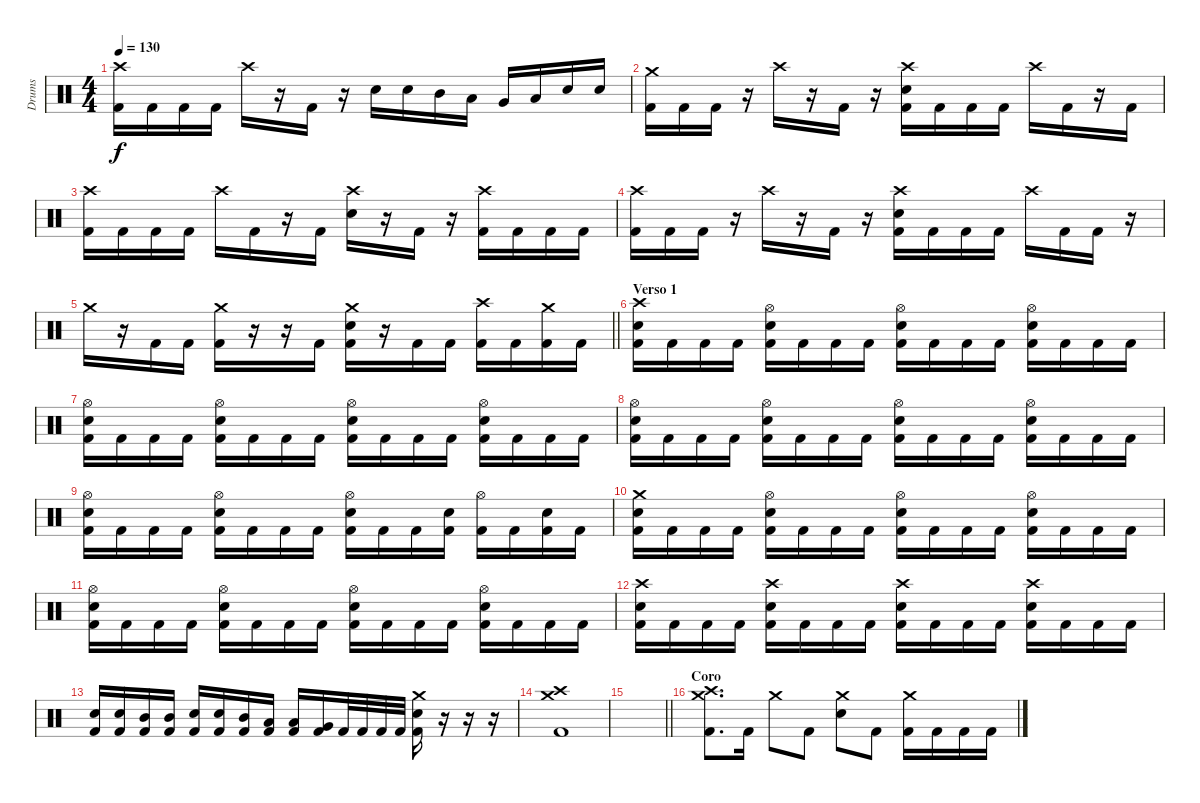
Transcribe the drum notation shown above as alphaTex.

\track ("Drums" "Drums") {instrument percussion}
\staff {score}
\articulation defaults
\ts (4 4)
\tempo 130
\clef neutral
\ks c
("Crash high (hit)" "Kick (hit) 2").16{dy f} "Kick (hit) 2".16 "Kick (hit) 2".16 "Kick (hit) 2".16 "Crash high (hit)".16 r.16 "Kick (hit) 2".16 r.16 "Electric Snare (hit)".16 "Electric Snare (hit)".16 "Mid Tom (hit)".16 "Low Tom (hit)".16 "Very Low Tom (hit)".16 "Low Floor Tom (hit)".16 "Electric Snare (hit)".16 "Electric Snare (hit)".16 |
("Crash medium (hit)" "Kick (hit) 2").16 "Kick (hit) 2".16 "Kick (hit) 2".16 r.16 "Crash high (hit)".16 r.16 "Kick (hit) 2".16 r.16 ("Crash high (hit)" "Electric Snare (hit)" "Kick (hit) 2").16 "Kick (hit) 2".16 "Kick (hit) 2".16 "Kick (hit) 2".16 "Crash high (hit)".16 "Kick (hit) 2".16 r.16 "Kick (hit) 2".16 |
("Crash high (hit)" "Kick (hit) 2").16 "Kick (hit) 2".16 "Kick (hit) 2".16 "Kick (hit) 2".16 "Crash high (hit)".16 "Kick (hit) 2".16 r.16 "Kick (hit) 2".16 ("Crash high (hit)" "Electric Snare (hit)").16 r.16 "Kick (hit) 2".16 r.16 ("Crash high (hit)" "Kick (hit) 2").16 "Kick (hit) 2".16 "Kick (hit) 2".16 "Kick (hit) 2".16 |
("Crash high (hit)" "Kick (hit) 2").16 "Kick (hit) 2".16 "Kick (hit) 2".16 r.16 "Crash high (hit)".16 r.16 "Kick (hit) 2".16 r.16 ("Crash high (hit)" "Electric Snare (hit)" "Kick (hit) 2").16 "Kick (hit) 2".16 "Kick (hit) 2".16 "Kick (hit) 2".16 "Crash high (hit)".16 "Kick (hit) 2".16 "Kick (hit) 2".16 r.16 |
\barLineRight lightlight "Crash medium (hit)".16
r.16 "Kick (hit) 2".16 "Kick (hit) 2".16 ("Crash medium (hit)" "Kick (hit) 2").16 r.16 r.16 "Kick (hit) 2".16 ("Crash medium (hit)" "Electric Snare (hit)" "Kick (hit) 2").16 r.16 "Kick (hit) 2".16 "Kick (hit) 2".16 ("Crash high (hit)" "Kick (hit) 2").16 "Kick (hit) 2".16 ("Crash medium (hit)" "Kick (hit) 2").16 "Kick (hit) 2".16 |
\section ("" "Verso 1")
("Crash high (hit)" "Electric Snare (hit)" "Kick (hit) 2").16 "Kick (hit) 2".16 "Kick (hit) 2".16 "Kick (hit) 2".16 ("Hi-Hat (open)" "Electric Snare (hit)" "Kick (hit) 2").16 "Kick (hit) 2".16 "Kick (hit) 2".16 "Kick (hit) 2".16 ("Hi-Hat (open)" "Electric Snare (hit)" "Kick (hit) 2").16 "Kick (hit) 2".16 "Kick (hit) 2".16 "Kick (hit) 2".16 ("Hi-Hat (open)" "Electric Snare (hit)" "Kick (hit) 2").16 "Kick (hit) 2".16 "Kick (hit) 2".16 "Kick (hit) 2".16 |
("Hi-Hat (open)" "Electric Snare (hit)" "Kick (hit) 2").16 "Kick (hit) 2".16 "Kick (hit) 2".16 "Kick (hit) 2".16 ("Hi-Hat (open)" "Electric Snare (hit)" "Kick (hit) 2").16 "Kick (hit) 2".16 "Kick (hit) 2".16 "Kick (hit) 2".16 ("Hi-Hat (open)" "Electric Snare (hit)" "Kick (hit) 2").16 "Kick (hit) 2".16 "Kick (hit) 2".16 "Kick (hit) 2".16 ("Hi-Hat (open)" "Electric Snare (hit)" "Kick (hit) 2").16 "Kick (hit) 2".16 "Kick (hit) 2".16 "Kick (hit) 2".16 |
("Hi-Hat (open)" "Electric Snare (hit)" "Kick (hit) 2").16 "Kick (hit) 2".16 "Kick (hit) 2".16 "Kick (hit) 2".16 ("Hi-Hat (open)" "Electric Snare (hit)" "Kick (hit) 2").16 "Kick (hit) 2".16 "Kick (hit) 2".16 "Kick (hit) 2".16 ("Hi-Hat (open)" "Electric Snare (hit)" "Kick (hit) 2").16 "Kick (hit) 2".16 "Kick (hit) 2".16 "Kick (hit) 2".16 ("Hi-Hat (open)" "Electric Snare (hit)" "Kick (hit) 2").16 "Kick (hit) 2".16 "Kick (hit) 2".16 "Kick (hit) 2".16 |
("Hi-Hat (open)" "Electric Snare (hit)" "Kick (hit) 2").16 "Kick (hit) 2".16 "Kick (hit) 2".16 "Kick (hit) 2".16 ("Hi-Hat (open)" "Electric Snare (hit)" "Kick (hit) 2").16 "Kick (hit) 2".16 "Kick (hit) 2".16 "Kick (hit) 2".16 ("Hi-Hat (open)" "Electric Snare (hit)" "Kick (hit) 2").16 "Kick (hit) 2".16 "Kick (hit) 2".16 ("Electric Snare (hit)" "Kick (hit) 2").16 ("Hi-Hat (open)" "Kick (hit) 2").16 "Kick (hit) 2".16 ("Electric Snare (hit)" "Kick (hit) 2").16 "Kick (hit) 2".16 |
("Crash medium (hit)" "Electric Snare (hit)" "Kick (hit) 2").16 "Kick (hit) 2".16 "Kick (hit) 2".16 "Kick (hit) 2".16 ("Hi-Hat (open)" "Electric Snare (hit)" "Kick (hit) 2").16 "Kick (hit) 2".16 "Kick (hit) 2".16 "Kick (hit) 2".16 ("Hi-Hat (open)" "Electric Snare (hit)" "Kick (hit) 2").16 "Kick (hit) 2".16 "Kick (hit) 2".16 "Kick (hit) 2".16 ("Hi-Hat (open)" "Electric Snare (hit)" "Kick (hit) 2").16 "Kick (hit) 2".16 "Kick (hit) 2".16 "Kick (hit) 2".16 |
("Hi-Hat (open)" "Electric Snare (hit)" "Kick (hit) 2").16 "Kick (hit) 2".16 "Kick (hit) 2".16 "Kick (hit) 2".16 ("Hi-Hat (open)" "Electric Snare (hit)" "Kick (hit) 2").16 "Kick (hit) 2".16 "Kick (hit) 2".16 "Kick (hit) 2".16 ("Hi-Hat (open)" "Electric Snare (hit)" "Kick (hit) 2").16 "Kick (hit) 2".16 "Kick (hit) 2".16 "Kick (hit) 2".16 ("Hi-Hat (open)" "Electric Snare (hit)" "Kick (hit) 2").16 "Kick (hit) 2".16 "Kick (hit) 2".16 "Kick (hit) 2".16 |
("Crash high (hit)" "Electric Snare (hit)" "Kick (hit) 2").16 "Kick (hit) 2".16 "Kick (hit) 2".16 "Kick (hit) 2".16 ("Crash high (hit)" "Electric Snare (hit)" "Kick (hit) 2").16 "Kick (hit) 2".16 "Kick (hit) 2".16 "Kick (hit) 2".16 ("Crash high (hit)" "Electric Snare (hit)" "Kick (hit) 2").16 "Kick (hit) 2".16 "Kick (hit) 2".16 "Kick (hit) 2".16 ("Crash high (hit)" "Electric Snare (hit)" "Kick (hit) 2").16 "Kick (hit) 2".16 "Kick (hit) 2".16 "Kick (hit) 2".16 |
("Electric Snare (hit)" "Kick (hit) 2").16 ("Electric Snare (hit)" "Kick (hit) 2").16 ("Mid Tom (hit)" "Kick (hit) 2").16 ("Mid Tom (hit)" "Kick (hit) 2").16 ("Electric Snare (hit)" "Kick (hit) 2").16 ("Electric Snare (hit)" "Kick (hit) 2").16 ("Mid Tom (hit)" "Kick (hit) 2").16 ("Low Tom (hit)" "Kick (hit) 2").16 ("Low Tom (hit)" "Kick (hit) 2").16 ("Very Low Tom (hit)" "Kick (hit) 2").16 "Kick (hit) 2".32 "Kick (hit) 2".32 "Kick (hit) 2".32 "Kick (hit) 2".32 ("Crash medium (hit)" "Electric Snare (hit)" "Kick (hit) 2").16 r.16 r.16 r.16 |
("Crash medium (hit)" "Crash high (hit)" "Kick (hit) 2").1 |
\barLineRight lightlight
|
\section ("" "Coro")
("Crash medium (hit)" "Crash high (hit)" "Kick (hit) 2").8{d} "Kick (hit) 2".16 "Crash medium (hit)".8 "Kick (hit) 2".8 ("Crash medium (hit)" "Electric Snare (hit)").8 "Kick (hit) 2".8 ("Crash medium (hit)" "Kick (hit) 2").16 "Kick (hit) 2".16 "Kick (hit) 2".16 "Kick (hit) 2".16
